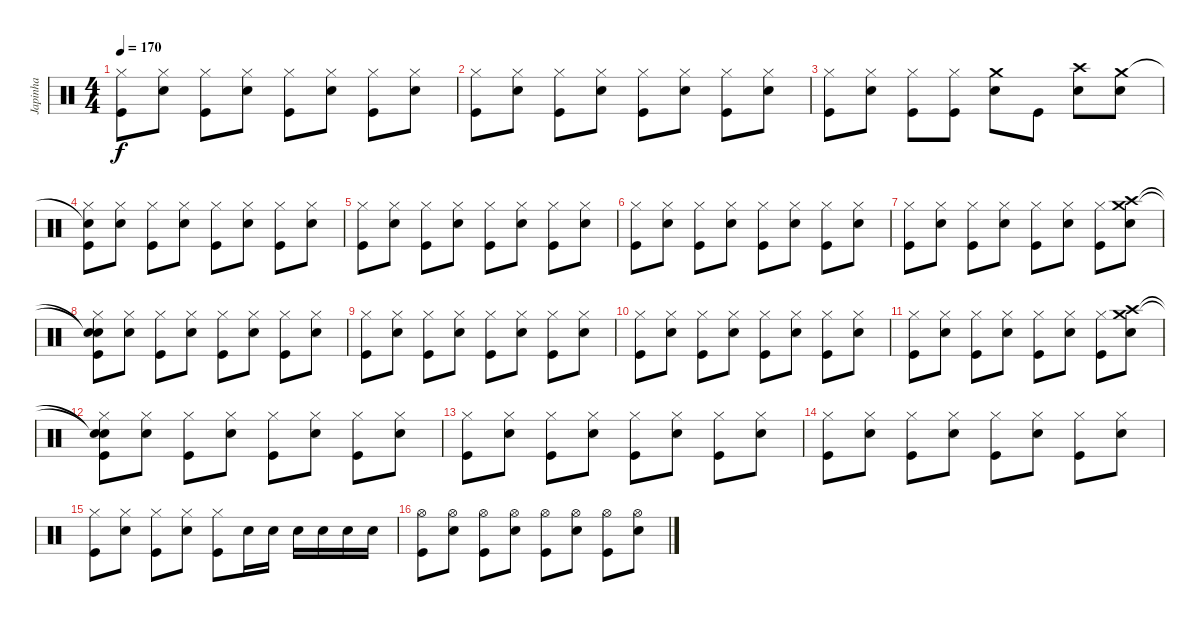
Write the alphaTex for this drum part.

\track ("Japinha" "Japinha") {instrument percussion}
\staff {score}
\articulation defaults
\ts (4 4)
\tempo 170
\clef neutral
\ks c
("Hi-Hat (closed)" "Kick (hit)").8{dy f} ("Hi-Hat (closed)" "Electric Snare (hit)").8 ("Hi-Hat (closed)" "Kick (hit)").8 ("Hi-Hat (closed)" "Electric Snare (hit)").8 ("Hi-Hat (closed)" "Kick (hit)").8 ("Hi-Hat (closed)" "Electric Snare (hit)").8 ("Hi-Hat (closed)" "Kick (hit)").8 ("Hi-Hat (closed)" "Electric Snare (hit)").8 |
("Hi-Hat (closed)" "Kick (hit)").8 ("Hi-Hat (closed)" "Electric Snare (hit)").8 ("Hi-Hat (closed)" "Kick (hit)").8 ("Hi-Hat (closed)" "Electric Snare (hit)").8 ("Hi-Hat (closed)" "Kick (hit)").8 ("Hi-Hat (closed)" "Electric Snare (hit)").8 ("Hi-Hat (closed)" "Kick (hit)").8 ("Hi-Hat (closed)" "Electric Snare (hit)").8 |
("Hi-Hat (closed)" "Kick (hit)").8 ("Hi-Hat (closed)" "Electric Snare (hit)").8 ("Hi-Hat (closed)" "Kick (hit)").8 ("Hi-Hat (closed)" "Kick (hit)").8 ("Crash medium (hit)" "Electric Snare (hit)").8 "Kick (hit)".8 ("Crash high (hit)" "Electric Snare (hit)").8 ("Crash medium (hit)" "Electric Snare (hit)").8 |
("Snare (hit)"{t} "Hi-Hat (closed)" "Kick (hit)").8 ("Hi-Hat (closed)" "Electric Snare (hit)").8 ("Hi-Hat (closed)" "Kick (hit)").8 ("Hi-Hat (closed)" "Electric Snare (hit)").8 ("Hi-Hat (closed)" "Kick (hit)").8 ("Hi-Hat (closed)" "Electric Snare (hit)").8 ("Hi-Hat (closed)" "Kick (hit)").8 ("Hi-Hat (closed)" "Electric Snare (hit)").8 |
("Hi-Hat (closed)" "Kick (hit)").8 ("Hi-Hat (closed)" "Electric Snare (hit)").8 ("Hi-Hat (closed)" "Kick (hit)").8 ("Hi-Hat (closed)" "Electric Snare (hit)").8 ("Hi-Hat (closed)" "Kick (hit)").8 ("Hi-Hat (closed)" "Electric Snare (hit)").8 ("Hi-Hat (closed)" "Kick (hit)").8 ("Hi-Hat (closed)" "Electric Snare (hit)").8 |
("Hi-Hat (closed)" "Kick (hit)").8 ("Hi-Hat (closed)" "Electric Snare (hit)").8 ("Hi-Hat (closed)" "Kick (hit)").8 ("Hi-Hat (closed)" "Electric Snare (hit)").8 ("Hi-Hat (closed)" "Kick (hit)").8 ("Hi-Hat (closed)" "Electric Snare (hit)").8 ("Hi-Hat (closed)" "Kick (hit)").8 ("Hi-Hat (closed)" "Electric Snare (hit)").8 |
("Hi-Hat (closed)" "Kick (hit)").8 ("Hi-Hat (closed)" "Electric Snare (hit)").8 ("Hi-Hat (closed)" "Kick (hit)").8 ("Hi-Hat (closed)" "Electric Snare (hit)").8 ("Hi-Hat (closed)" "Kick (hit)").8 ("Hi-Hat (closed)" "Electric Snare (hit)").8 ("Hi-Hat (closed)" "Kick (hit)").8 ("Crash high (hit)" "Crash medium (hit)" "Electric Snare (hit)").8 |
("Snare (hit)"{t} "Snare (hit)"{t} "Hi-Hat (closed)" "Kick (hit)").8 ("Hi-Hat (closed)" "Electric Snare (hit)").8 ("Hi-Hat (closed)" "Kick (hit)").8 ("Hi-Hat (closed)" "Electric Snare (hit)").8 ("Hi-Hat (closed)" "Kick (hit)").8 ("Hi-Hat (closed)" "Electric Snare (hit)").8 ("Hi-Hat (closed)" "Kick (hit)").8 ("Hi-Hat (closed)" "Electric Snare (hit)").8 |
("Hi-Hat (closed)" "Kick (hit)").8 ("Hi-Hat (closed)" "Electric Snare (hit)").8 ("Hi-Hat (closed)" "Kick (hit)").8 ("Hi-Hat (closed)" "Electric Snare (hit)").8 ("Hi-Hat (closed)" "Kick (hit)").8 ("Hi-Hat (closed)" "Electric Snare (hit)").8 ("Hi-Hat (closed)" "Kick (hit)").8 ("Hi-Hat (closed)" "Electric Snare (hit)").8 |
("Hi-Hat (closed)" "Kick (hit)").8 ("Hi-Hat (closed)" "Electric Snare (hit)").8 ("Hi-Hat (closed)" "Kick (hit)").8 ("Hi-Hat (closed)" "Electric Snare (hit)").8 ("Hi-Hat (closed)" "Kick (hit)").8 ("Hi-Hat (closed)" "Electric Snare (hit)").8 ("Hi-Hat (closed)" "Kick (hit)").8 ("Hi-Hat (closed)" "Electric Snare (hit)").8 |
("Hi-Hat (closed)" "Kick (hit)").8 ("Hi-Hat (closed)" "Electric Snare (hit)").8 ("Hi-Hat (closed)" "Kick (hit)").8 ("Hi-Hat (closed)" "Electric Snare (hit)").8 ("Hi-Hat (closed)" "Kick (hit)").8 ("Hi-Hat (closed)" "Electric Snare (hit)").8 ("Hi-Hat (closed)" "Kick (hit)").8 ("Crash high (hit)" "Crash medium (hit)" "Electric Snare (hit)").8 |
("Snare (hit)"{t} "Snare (hit)"{t} "Hi-Hat (closed)" "Kick (hit)").8 ("Hi-Hat (closed)" "Electric Snare (hit)").8 ("Hi-Hat (closed)" "Kick (hit)").8 ("Hi-Hat (closed)" "Electric Snare (hit)").8 ("Hi-Hat (closed)" "Kick (hit)").8 ("Hi-Hat (closed)" "Electric Snare (hit)").8 ("Hi-Hat (closed)" "Kick (hit)").8 ("Hi-Hat (closed)" "Electric Snare (hit)").8 |
("Hi-Hat (closed)" "Kick (hit)").8 ("Hi-Hat (closed)" "Electric Snare (hit)").8 ("Hi-Hat (closed)" "Kick (hit)").8 ("Hi-Hat (closed)" "Electric Snare (hit)").8 ("Hi-Hat (closed)" "Kick (hit)").8 ("Hi-Hat (closed)" "Electric Snare (hit)").8 ("Hi-Hat (closed)" "Kick (hit)").8 ("Hi-Hat (closed)" "Electric Snare (hit)").8 |
("Hi-Hat (closed)" "Kick (hit)").8 ("Hi-Hat (closed)" "Electric Snare (hit)").8 ("Hi-Hat (closed)" "Kick (hit)").8 ("Hi-Hat (closed)" "Electric Snare (hit)").8 ("Hi-Hat (closed)" "Kick (hit)").8 ("Hi-Hat (closed)" "Electric Snare (hit)").8 ("Hi-Hat (closed)" "Kick (hit)").8 ("Hi-Hat (closed)" "Electric Snare (hit)").8 |
("Hi-Hat (closed)" "Kick (hit)").8 ("Hi-Hat (closed)" "Electric Snare (hit)").8 ("Hi-Hat (closed)" "Kick (hit)").8 ("Hi-Hat (closed)" "Electric Snare (hit)").8 ("Hi-Hat (closed)" "Kick (hit)").8 "Electric Snare (hit)".16 "Electric Snare (hit)".16 "Electric Snare (hit)".16 "Electric Snare (hit)".16 "Electric Snare (hit)".16 "Electric Snare (hit)".16 |
("Hi-Hat (open)" "Kick (hit)").8 ("Hi-Hat (open)" "Electric Snare (hit)").8 ("Hi-Hat (open)" "Kick (hit)").8 ("Hi-Hat (open)" "Electric Snare (hit)").8 ("Hi-Hat (open)" "Kick (hit)").8 ("Hi-Hat (open)" "Electric Snare (hit)").8 ("Hi-Hat (open)" "Kick (hit)").8 ("Hi-Hat (open)" "Electric Snare (hit)").8
